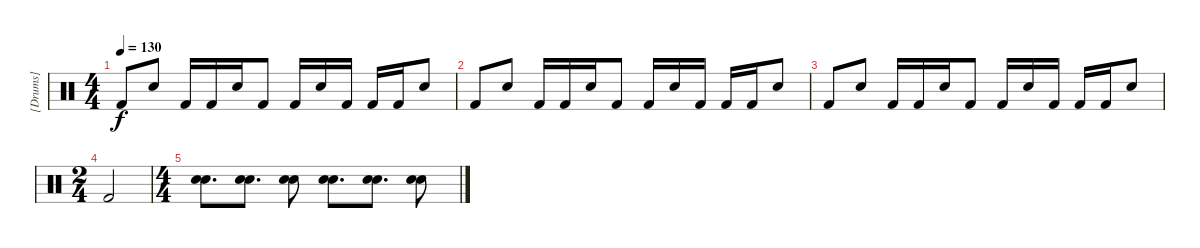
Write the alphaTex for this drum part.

\track ("[Drums]" "[Drums]") {instrument percussion}
\staff {score}
\articulation defaults
\ts (4 4)
\tempo 130
\clef neutral
\ks c "Kick (hit) 2".8{dy f} "Electric Snare (hit)".8 "Kick (hit) 2".16 "Kick (hit) 2".16 "Electric Snare (hit)".16 "Kick (hit) 2".8 "Kick (hit) 2".16 "Electric Snare (hit)".16 "Kick (hit) 2".16 "Kick (hit) 2".16 "Kick (hit) 2".16 "Electric Snare (hit)".8
|
"Kick (hit) 2".8 "Electric Snare (hit)".8 "Kick (hit) 2".16 "Kick (hit) 2".16 "Electric Snare (hit)".16 "Kick (hit) 2".8 "Kick (hit) 2".16 "Electric Snare (hit)".16 "Kick (hit) 2".16 "Kick (hit) 2".16 "Kick (hit) 2".16 "Electric Snare (hit)".8 |
"Kick (hit) 2".8 "Electric Snare (hit)".8 "Kick (hit) 2".16 "Kick (hit) 2".16 "Electric Snare (hit)".16 "Kick (hit) 2".8 "Kick (hit) 2".16 "Electric Snare (hit)".16 "Kick (hit) 2".16 "Kick (hit) 2".16 "Kick (hit) 2".16 "Electric Snare (hit)".8 |
\ts (2 4)
"Kick (hit) 2".2 |
\ts (4 4)
("Electric Snare (hit)" "Electric Snare (hit)").8{d bd 480} ("Electric Snare (hit)" "Electric Snare (hit)").8{d} ("Electric Snare (hit)" "Electric Snare (hit)").8 ("Electric Snare (hit)" "Electric Snare (hit)").8{d} ("Electric Snare (hit)" "Electric Snare (hit)").8{d} ("Electric Snare (hit)" "Electric Snare (hit)").8
